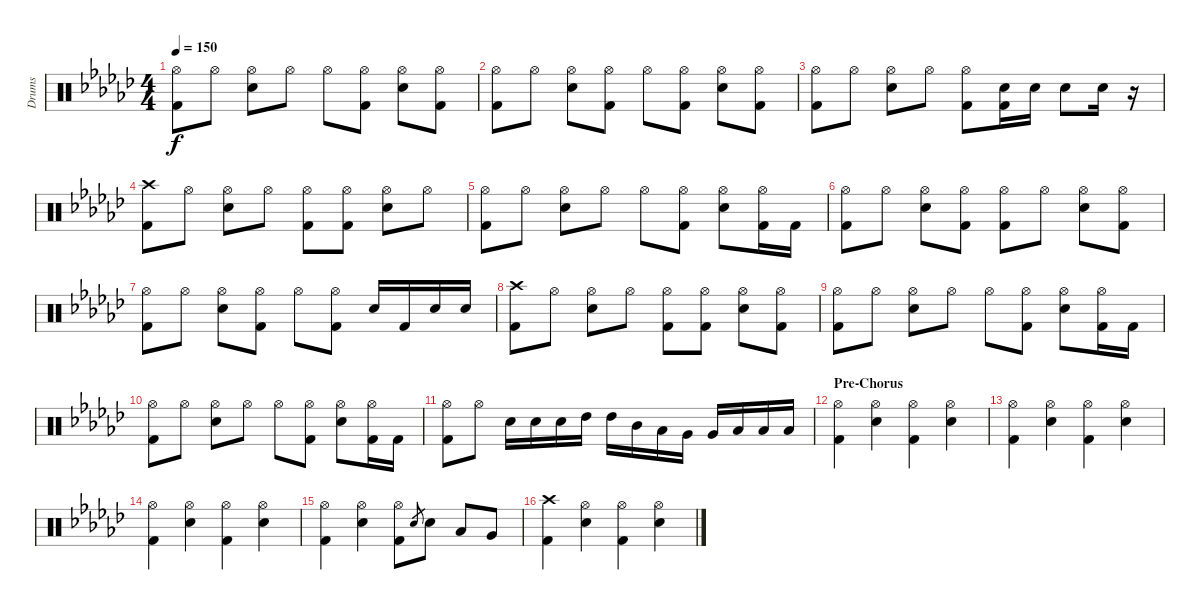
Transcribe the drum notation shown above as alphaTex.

\track ("Drums" "Drums") {instrument percussion}
\staff {score}
\articulation defaults
\ts (4 4)
\tempo 150
\clef neutral
\ks gb
("Hi-Hat (open)" "Kick (hit) 2").8{dy f} "Hi-Hat (open)".8 ("Hi-Hat (open)" "Electric Snare (hit)").8 "Hi-Hat (open)".8 "Hi-Hat (open)".8 ("Hi-Hat (open)" "Kick (hit) 2").8 ("Hi-Hat (open)" "Electric Snare (hit)").8 ("Hi-Hat (open)" "Kick (hit) 2").8 |
("Hi-Hat (open)" "Kick (hit) 2").8 "Hi-Hat (open)".8 ("Hi-Hat (open)" "Electric Snare (hit)").8 ("Hi-Hat (open)" "Kick (hit) 2").8 "Hi-Hat (open)".8 ("Hi-Hat (open)" "Kick (hit) 2").8 ("Hi-Hat (open)" "Electric Snare (hit)").8 ("Hi-Hat (open)" "Kick (hit) 2").8 |
("Hi-Hat (open)" "Kick (hit) 2").8 "Hi-Hat (open)".8 ("Hi-Hat (open)" "Electric Snare (hit)").8 "Hi-Hat (open)".8 ("Hi-Hat (open)" "Kick (hit) 2").8 ("Electric Snare (hit)" "Kick (hit) 2").16 "Electric Snare (hit)".16 "Electric Snare (hit)".8 "Electric Snare (hit)".16 r.16 |
("Crash high (hit)" "Kick (hit) 2").8 "Hi-Hat (open)".8 ("Hi-Hat (open)" "Electric Snare (hit)").8 "Hi-Hat (open)".8 ("Hi-Hat (open)" "Kick (hit) 2").8 ("Hi-Hat (open)" "Kick (hit) 2").8 ("Hi-Hat (open)" "Electric Snare (hit)").8 "Hi-Hat (open)".8 |
("Hi-Hat (open)" "Kick (hit) 2").8 "Hi-Hat (open)".8 ("Hi-Hat (open)" "Electric Snare (hit)").8 "Hi-Hat (open)".8 "Hi-Hat (open)".8 ("Hi-Hat (open)" "Kick (hit) 2").8 ("Hi-Hat (open)" "Electric Snare (hit)").8 ("Hi-Hat (open)" "Kick (hit) 2").16 "Kick (hit) 2".16 |
("Hi-Hat (open)" "Kick (hit) 2").8 "Hi-Hat (open)".8 ("Hi-Hat (open)" "Electric Snare (hit)").8 ("Hi-Hat (open)" "Kick (hit) 2").8 ("Hi-Hat (open)" "Kick (hit) 2").8 "Hi-Hat (open)".8 ("Hi-Hat (open)" "Electric Snare (hit)").8 ("Hi-Hat (open)" "Kick (hit) 2").8 |
("Hi-Hat (open)" "Kick (hit) 2").8 "Hi-Hat (open)".8 ("Hi-Hat (open)" "Electric Snare (hit)").8 ("Hi-Hat (open)" "Kick (hit) 2").8 "Hi-Hat (open)".8 ("Hi-Hat (open)" "Kick (hit) 2").8 "Electric Snare (hit)".16 "Kick (hit) 2".16 "Electric Snare (hit)".16 "Electric Snare (hit)".16 |
("Crash high (hit)" "Kick (hit) 2").8 "Hi-Hat (open)".8 ("Hi-Hat (open)" "Electric Snare (hit)").8 "Hi-Hat (open)".8 ("Hi-Hat (open)" "Kick (hit) 2").8 ("Hi-Hat (open)" "Kick (hit) 2").8 ("Hi-Hat (open)" "Electric Snare (hit)").8 ("Hi-Hat (open)" "Kick (hit) 2").8 |
("Hi-Hat (open)" "Kick (hit) 2").8 "Hi-Hat (open)".8 ("Hi-Hat (open)" "Electric Snare (hit)").8 "Hi-Hat (open)".8 "Hi-Hat (open)".8 ("Hi-Hat (open)" "Kick (hit) 2").8 ("Hi-Hat (open)" "Electric Snare (hit)").8 ("Hi-Hat (open)" "Kick (hit) 2").16 "Kick (hit) 2".16 |
("Hi-Hat (open)" "Kick (hit) 2").8 "Hi-Hat (open)".8 ("Hi-Hat (open)" "Electric Snare (hit)").8 "Hi-Hat (open)".8 "Hi-Hat (open)".8 ("Hi-Hat (open)" "Kick (hit) 2").8 ("Hi-Hat (open)" "Electric Snare (hit)").8 ("Hi-Hat (open)" "Kick (hit) 2").16 "Kick (hit) 2".16 |
("Hi-Hat (open)" "Kick (hit) 2").8 "Hi-Hat (open)".8 "Electric Snare (hit)".16 "Electric Snare (hit)".16 "Electric Snare (hit)".16 "High Tom (hit)".16 "High Tom (hit)".16 "Mid Tom (hit)".16 "Low Tom (hit)".16 "Very Low Tom (hit)".16 "Very Low Tom (hit)".16 "Low Floor Tom (hit)".16 "Low Floor Tom (hit)".16 "Low Floor Tom (hit)".16 |
\section ("" "Pre-Chorus")
("Hi-Hat (open)" "Kick (hit) 2").4 ("Hi-Hat (open)" "Electric Snare (hit)").4 ("Hi-Hat (open)" "Kick (hit) 2").4 ("Hi-Hat (open)" "Electric Snare (hit)").4 |
("Hi-Hat (open)" "Kick (hit) 2").4 ("Hi-Hat (open)" "Electric Snare (hit)").4 ("Hi-Hat (open)" "Kick (hit) 2").4 ("Hi-Hat (open)" "Electric Snare (hit)").4 |
("Hi-Hat (open)" "Kick (hit) 2").4 ("Hi-Hat (open)" "Electric Snare (hit)").4 ("Hi-Hat (open)" "Kick (hit) 2").4 ("Hi-Hat (open)" "Electric Snare (hit)").4 |
("Hi-Hat (open)" "Kick (hit) 2").4 ("Hi-Hat (open)" "Electric Snare (hit)").4 ("Hi-Hat (open)" "Kick (hit) 2").8 "Electric Snare (hit)".8{gr} "Electric Snare (hit)".8 "Low Tom (hit)".8 "Very Low Tom (hit)".8 |
("Crash high (hit)" "Kick (hit) 2").4 ("Hi-Hat (open)" "Electric Snare (hit)").4 ("Hi-Hat (open)" "Kick (hit) 2").4 ("Hi-Hat (open)" "Electric Snare (hit)").4
